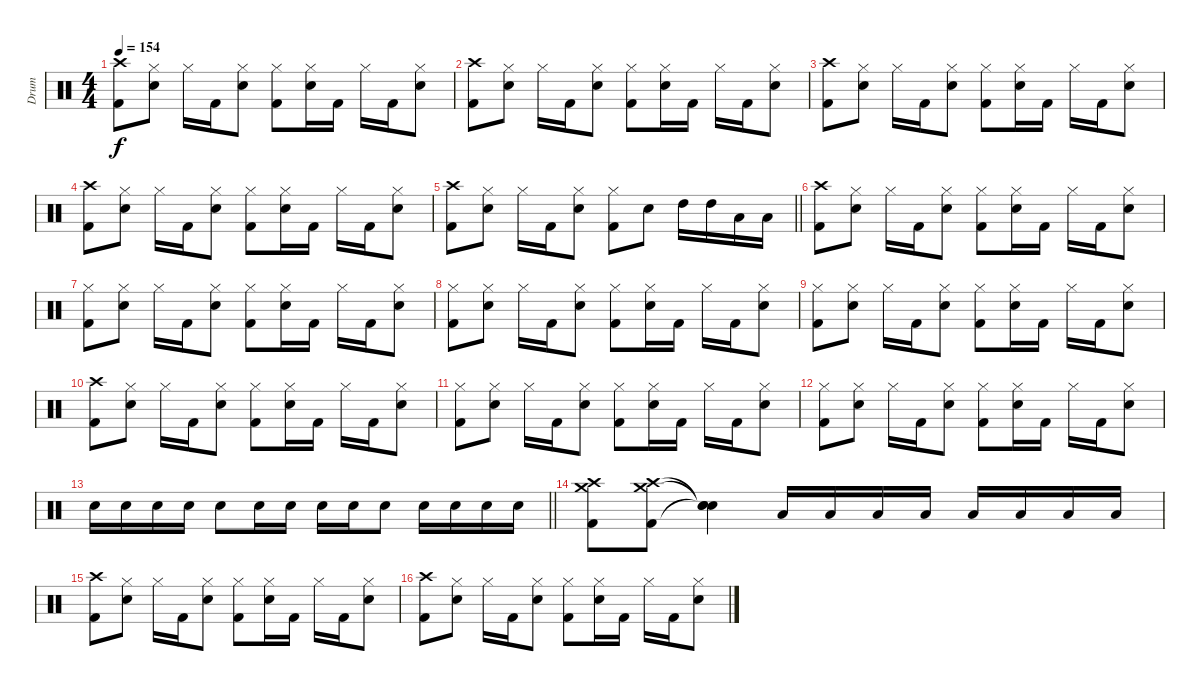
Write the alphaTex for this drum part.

\track ("Drum" "Drum") {instrument percussion}
\staff {score}
\articulation defaults
\ts (4 4)
\tempo 154
\clef neutral
\ks c
("Crash high (hit)" "Kick (hit) 2").8{dy f} ("Hi-Hat (closed)" "Snare (hit) 2").8 "Hi-Hat (closed)".16 "Kick (hit) 2".16 ("Hi-Hat (closed)" "Snare (hit) 2").8 ("Hi-Hat (closed)" "Kick (hit) 2").8 ("Hi-Hat (closed)" "Snare (hit) 2").16 "Kick (hit) 2".16 "Hi-Hat (closed)".16 "Kick (hit) 2".16 ("Hi-Hat (closed)" "Snare (hit) 2").8 |
("Crash high (hit)" "Kick (hit) 2").8 ("Hi-Hat (closed)" "Snare (hit) 2").8 "Hi-Hat (closed)".16 "Kick (hit) 2".16 ("Hi-Hat (closed)" "Snare (hit) 2").8 ("Hi-Hat (closed)" "Kick (hit) 2").8 ("Hi-Hat (closed)" "Snare (hit) 2").16 "Kick (hit) 2".16 "Hi-Hat (closed)".16 "Kick (hit) 2".16 ("Hi-Hat (closed)" "Snare (hit) 2").8 |
("Crash high (hit)" "Kick (hit) 2").8 ("Hi-Hat (closed)" "Snare (hit) 2").8 "Hi-Hat (closed)".16 "Kick (hit) 2".16 ("Hi-Hat (closed)" "Snare (hit) 2").8 ("Hi-Hat (closed)" "Kick (hit) 2").8 ("Hi-Hat (closed)" "Snare (hit) 2").16 "Kick (hit) 2".16 "Hi-Hat (closed)".16 "Kick (hit) 2".16 ("Hi-Hat (closed)" "Snare (hit) 2").8 |
("Crash high (hit)" "Kick (hit) 2").8 ("Hi-Hat (closed)" "Snare (hit) 2").8 "Hi-Hat (closed)".16 "Kick (hit) 2".16 ("Hi-Hat (closed)" "Snare (hit) 2").8 ("Hi-Hat (closed)" "Kick (hit) 2").8 ("Hi-Hat (closed)" "Snare (hit) 2").16 "Kick (hit) 2".16 "Hi-Hat (closed)".16 "Kick (hit) 2".16 ("Hi-Hat (closed)" "Snare (hit) 2").8 |
\barLineRight lightlight
("Crash high (hit)" "Kick (hit) 2").8 ("Hi-Hat (closed)" "Snare (hit) 2").8 "Hi-Hat (closed)".16 "Kick (hit) 2".16 ("Hi-Hat (closed)" "Snare (hit) 2").8 ("Hi-Hat (closed)" "Kick (hit) 2").8 "Snare (hit) 2".8 "High Tom (hit)".16 "High Tom (hit)".16 "Low Tom (hit)".16 "Low Tom (hit)".16 |
("Crash high (hit)" "Kick (hit) 2").8 ("Hi-Hat (closed)" "Snare (hit) 2").8 "Hi-Hat (closed)".16 "Kick (hit) 2".16 ("Hi-Hat (closed)" "Snare (hit) 2").8 ("Hi-Hat (closed)" "Kick (hit) 2").8 ("Hi-Hat (closed)" "Snare (hit) 2").16 "Kick (hit) 2".16 "Hi-Hat (closed)".16 "Kick (hit) 2".16 ("Hi-Hat (closed)" "Snare (hit) 2").8 |
("Hi-Hat (closed)" "Kick (hit) 2").8 ("Hi-Hat (closed)" "Snare (hit) 2").8 "Hi-Hat (closed)".16 "Kick (hit) 2".16 ("Hi-Hat (closed)" "Snare (hit) 2").8 ("Hi-Hat (closed)" "Kick (hit) 2").8 ("Hi-Hat (closed)" "Snare (hit) 2").16 "Kick (hit) 2".16 "Hi-Hat (closed)".16 "Kick (hit) 2".16 ("Hi-Hat (closed)" "Snare (hit) 2").8 |
("Hi-Hat (closed)" "Kick (hit) 2").8 ("Hi-Hat (closed)" "Snare (hit) 2").8 "Hi-Hat (closed)".16 "Kick (hit) 2".16 ("Hi-Hat (closed)" "Snare (hit) 2").8 ("Hi-Hat (closed)" "Kick (hit) 2").8 ("Hi-Hat (closed)" "Snare (hit) 2").16 "Kick (hit) 2".16 "Hi-Hat (closed)".16 "Kick (hit) 2".16 ("Hi-Hat (closed)" "Snare (hit) 2").8 |
("Hi-Hat (closed)" "Kick (hit) 2").8 ("Hi-Hat (closed)" "Snare (hit) 2").8 "Hi-Hat (closed)".16 "Kick (hit) 2".16 ("Hi-Hat (closed)" "Snare (hit) 2").8 ("Hi-Hat (closed)" "Kick (hit) 2").8 ("Hi-Hat (closed)" "Snare (hit) 2").16 "Kick (hit) 2".16 "Hi-Hat (closed)".16 "Kick (hit) 2".16 ("Hi-Hat (closed)" "Snare (hit) 2").8 |
("Crash high (hit)" "Kick (hit) 2").8 ("Hi-Hat (closed)" "Snare (hit) 2").8 "Hi-Hat (closed)".16 "Kick (hit) 2".16 ("Hi-Hat (closed)" "Snare (hit) 2").8 ("Hi-Hat (closed)" "Kick (hit) 2").8 ("Hi-Hat (closed)" "Snare (hit) 2").16 "Kick (hit) 2".16 "Hi-Hat (closed)".16 "Kick (hit) 2".16 ("Hi-Hat (closed)" "Snare (hit) 2").8 |
("Hi-Hat (closed)" "Kick (hit) 2").8 ("Hi-Hat (closed)" "Snare (hit) 2").8 "Hi-Hat (closed)".16 "Kick (hit) 2".16 ("Hi-Hat (closed)" "Snare (hit) 2").8 ("Hi-Hat (closed)" "Kick (hit) 2").8 ("Hi-Hat (closed)" "Snare (hit) 2").16 "Kick (hit) 2".16 "Hi-Hat (closed)".16 "Kick (hit) 2".16 ("Hi-Hat (closed)" "Snare (hit) 2").8 |
("Hi-Hat (closed)" "Kick (hit) 2").8 ("Hi-Hat (closed)" "Snare (hit) 2").8 "Hi-Hat (closed)".16 "Kick (hit) 2".16 ("Hi-Hat (closed)" "Snare (hit) 2").8 ("Hi-Hat (closed)" "Kick (hit) 2").8 ("Hi-Hat (closed)" "Snare (hit) 2").16 "Kick (hit) 2".16 "Hi-Hat (closed)".16 "Kick (hit) 2".16 ("Hi-Hat (closed)" "Snare (hit) 2").8 |
\barLineRight lightlight "Snare (hit) 2".16 "Snare (hit) 2".16 "Snare (hit) 2".16 "Snare (hit) 2".16 "Snare (hit) 2".8 "Snare (hit) 2".16 "Snare (hit) 2".16 "Snare (hit) 2".16 "Snare (hit) 2".16 "Snare (hit) 2".8 "Snare (hit) 2".16 "Snare (hit) 2".16 "Snare (hit) 2".16 "Snare (hit) 2".16
|
("Crash medium (hit)" "Crash high (hit)" "Kick (hit) 2").8 ("Crash medium (hit)" "Crash high (hit)" "Kick (hit) 2").8 ("Snare (hit)"{t} "Snare (hit)"{t} "Snare (hit)"{t}).4 "Low Floor Tom (hit)".16 "Low Floor Tom (hit)".16 "Low Floor Tom (hit)".16 "Low Floor Tom (hit)".16 "Low Floor Tom (hit)".16 "Low Floor Tom (hit)".16 "Low Floor Tom (hit)".16 "Low Floor Tom (hit)".16 |
("Crash high (hit)" "Kick (hit) 2").8 ("Hi-Hat (closed)" "Snare (hit) 2").8 "Hi-Hat (closed)".16 "Kick (hit) 2".16 ("Hi-Hat (closed)" "Snare (hit) 2").8 ("Hi-Hat (closed)" "Kick (hit) 2").8 ("Hi-Hat (closed)" "Snare (hit) 2").16 "Kick (hit) 2".16 "Hi-Hat (closed)".16 "Kick (hit) 2".16 ("Hi-Hat (closed)" "Snare (hit) 2").8 |
("Crash high (hit)" "Kick (hit) 2").8 ("Hi-Hat (closed)" "Snare (hit) 2").8 "Hi-Hat (closed)".16 "Kick (hit) 2".16 ("Hi-Hat (closed)" "Snare (hit) 2").8 ("Hi-Hat (closed)" "Kick (hit) 2").8 ("Hi-Hat (closed)" "Snare (hit) 2").16 "Kick (hit) 2".16 "Hi-Hat (closed)".16 "Kick (hit) 2".16 ("Hi-Hat (closed)" "Snare (hit) 2").8
